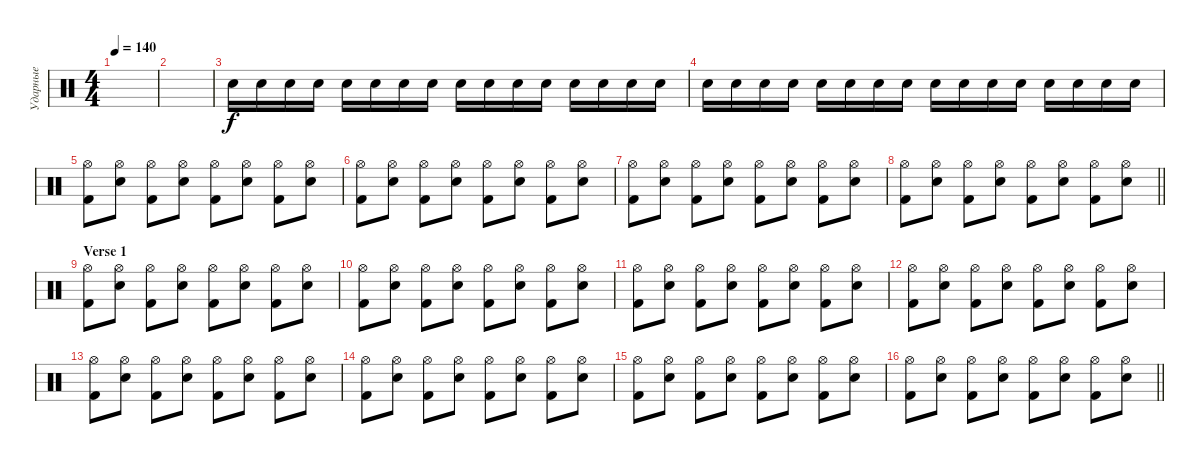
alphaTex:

\track ("Ударные" "Ударные") {instrument percussion}
\staff {score}
\articulation defaults
\ts (4 4)
\tempo 140
\clef neutral
\ks c
|
|
"Electric Snare (hit)".16 "Electric Snare (hit)".16 "Electric Snare (hit)".16 "Electric Snare (hit)".16 "Electric Snare (hit)".16 "Electric Snare (hit)".16 "Electric Snare (hit)".16 "Electric Snare (hit)".16 "Electric Snare (hit)".16 "Electric Snare (hit)".16 "Electric Snare (hit)".16 "Electric Snare (hit)".16 "Electric Snare (hit)".16 "Electric Snare (hit)".16 "Electric Snare (hit)".16 "Electric Snare (hit)".16 |
"Electric Snare (hit)".16 "Electric Snare (hit)".16 "Electric Snare (hit)".16 "Electric Snare (hit)".16 "Electric Snare (hit)".16 "Electric Snare (hit)".16 "Electric Snare (hit)".16 "Electric Snare (hit)".16 "Electric Snare (hit)".16 "Electric Snare (hit)".16 "Electric Snare (hit)".16 "Electric Snare (hit)".16 "Electric Snare (hit)".16 "Electric Snare (hit)".16 "Electric Snare (hit)".16 "Electric Snare (hit)".16 |
("Hi-Hat (open)" "Kick (hit) 2").8 ("Hi-Hat (open)" "Electric Snare (hit)").8 ("Hi-Hat (open)" "Kick (hit) 2").8 ("Hi-Hat (open)" "Electric Snare (hit)").8 ("Hi-Hat (open)" "Kick (hit) 2").8 ("Hi-Hat (open)" "Electric Snare (hit)").8 ("Hi-Hat (open)" "Kick (hit) 2").8 ("Hi-Hat (open)" "Electric Snare (hit)").8 |
("Hi-Hat (open)" "Kick (hit) 2").8 ("Hi-Hat (open)" "Electric Snare (hit)").8 ("Hi-Hat (open)" "Kick (hit) 2").8 ("Hi-Hat (open)" "Electric Snare (hit)").8 ("Hi-Hat (open)" "Kick (hit) 2").8 ("Hi-Hat (open)" "Electric Snare (hit)").8 ("Hi-Hat (open)" "Kick (hit) 2").8 ("Hi-Hat (open)" "Electric Snare (hit)").8 |
("Hi-Hat (open)" "Kick (hit) 2").8 ("Hi-Hat (open)" "Electric Snare (hit)").8 ("Hi-Hat (open)" "Kick (hit) 2").8 ("Hi-Hat (open)" "Electric Snare (hit)").8 ("Hi-Hat (open)" "Kick (hit) 2").8 ("Hi-Hat (open)" "Electric Snare (hit)").8 ("Hi-Hat (open)" "Kick (hit) 2").8 ("Hi-Hat (open)" "Electric Snare (hit)").8 |
\barLineRight lightlight
("Hi-Hat (open)" "Kick (hit) 2").8 ("Hi-Hat (open)" "Electric Snare (hit)").8 ("Hi-Hat (open)" "Kick (hit) 2").8 ("Hi-Hat (open)" "Electric Snare (hit)").8 ("Hi-Hat (open)" "Kick (hit) 2").8 ("Hi-Hat (open)" "Electric Snare (hit)").8 ("Hi-Hat (open)" "Kick (hit) 2").8 ("Hi-Hat (open)" "Electric Snare (hit)").8 |
\section ("" "Verse 1")
("Hi-Hat (open)" "Kick (hit) 2").8 ("Hi-Hat (open)" "Electric Snare (hit)").8 ("Hi-Hat (open)" "Kick (hit) 2").8 ("Hi-Hat (open)" "Electric Snare (hit)").8 ("Hi-Hat (open)" "Kick (hit) 2").8 ("Hi-Hat (open)" "Electric Snare (hit)").8 ("Hi-Hat (open)" "Kick (hit) 2").8 ("Hi-Hat (open)" "Electric Snare (hit)").8 |
("Hi-Hat (open)" "Kick (hit) 2").8 ("Hi-Hat (open)" "Electric Snare (hit)").8 ("Hi-Hat (open)" "Kick (hit) 2").8 ("Hi-Hat (open)" "Electric Snare (hit)").8 ("Hi-Hat (open)" "Kick (hit) 2").8 ("Hi-Hat (open)" "Electric Snare (hit)").8 ("Hi-Hat (open)" "Kick (hit) 2").8 ("Hi-Hat (open)" "Electric Snare (hit)").8 |
("Hi-Hat (open)" "Kick (hit) 2").8 ("Hi-Hat (open)" "Electric Snare (hit)").8 ("Hi-Hat (open)" "Kick (hit) 2").8 ("Hi-Hat (open)" "Electric Snare (hit)").8 ("Hi-Hat (open)" "Kick (hit) 2").8 ("Hi-Hat (open)" "Electric Snare (hit)").8 ("Hi-Hat (open)" "Kick (hit) 2").8 ("Hi-Hat (open)" "Electric Snare (hit)").8 |
("Hi-Hat (open)" "Kick (hit) 2").8 ("Hi-Hat (open)" "Electric Snare (hit)").8 ("Hi-Hat (open)" "Kick (hit) 2").8 ("Hi-Hat (open)" "Electric Snare (hit)").8 ("Hi-Hat (open)" "Kick (hit) 2").8 ("Hi-Hat (open)" "Electric Snare (hit)").8 ("Hi-Hat (open)" "Kick (hit) 2").8 ("Hi-Hat (open)" "Electric Snare (hit)").8 |
("Hi-Hat (open)" "Kick (hit) 2").8 ("Hi-Hat (open)" "Electric Snare (hit)").8 ("Hi-Hat (open)" "Kick (hit) 2").8 ("Hi-Hat (open)" "Electric Snare (hit)").8 ("Hi-Hat (open)" "Kick (hit) 2").8 ("Hi-Hat (open)" "Electric Snare (hit)").8 ("Hi-Hat (open)" "Kick (hit) 2").8 ("Hi-Hat (open)" "Electric Snare (hit)").8 |
("Hi-Hat (open)" "Kick (hit) 2").8 ("Hi-Hat (open)" "Electric Snare (hit)").8 ("Hi-Hat (open)" "Kick (hit) 2").8 ("Hi-Hat (open)" "Electric Snare (hit)").8 ("Hi-Hat (open)" "Kick (hit) 2").8 ("Hi-Hat (open)" "Electric Snare (hit)").8 ("Hi-Hat (open)" "Kick (hit) 2").8 ("Hi-Hat (open)" "Electric Snare (hit)").8 |
("Hi-Hat (open)" "Kick (hit) 2").8 ("Hi-Hat (open)" "Electric Snare (hit)").8 ("Hi-Hat (open)" "Kick (hit) 2").8 ("Hi-Hat (open)" "Electric Snare (hit)").8 ("Hi-Hat (open)" "Kick (hit) 2").8 ("Hi-Hat (open)" "Electric Snare (hit)").8 ("Hi-Hat (open)" "Kick (hit) 2").8 ("Hi-Hat (open)" "Electric Snare (hit)").8 |
\barLineRight lightlight
("Hi-Hat (open)" "Kick (hit) 2").8 ("Hi-Hat (open)" "Electric Snare (hit)").8 ("Hi-Hat (open)" "Kick (hit) 2").8 ("Hi-Hat (open)" "Electric Snare (hit)").8 ("Hi-Hat (open)" "Kick (hit) 2").8 ("Hi-Hat (open)" "Electric Snare (hit)").8 ("Hi-Hat (open)" "Kick (hit) 2").8 ("Hi-Hat (open)" "Electric Snare (hit)").8
